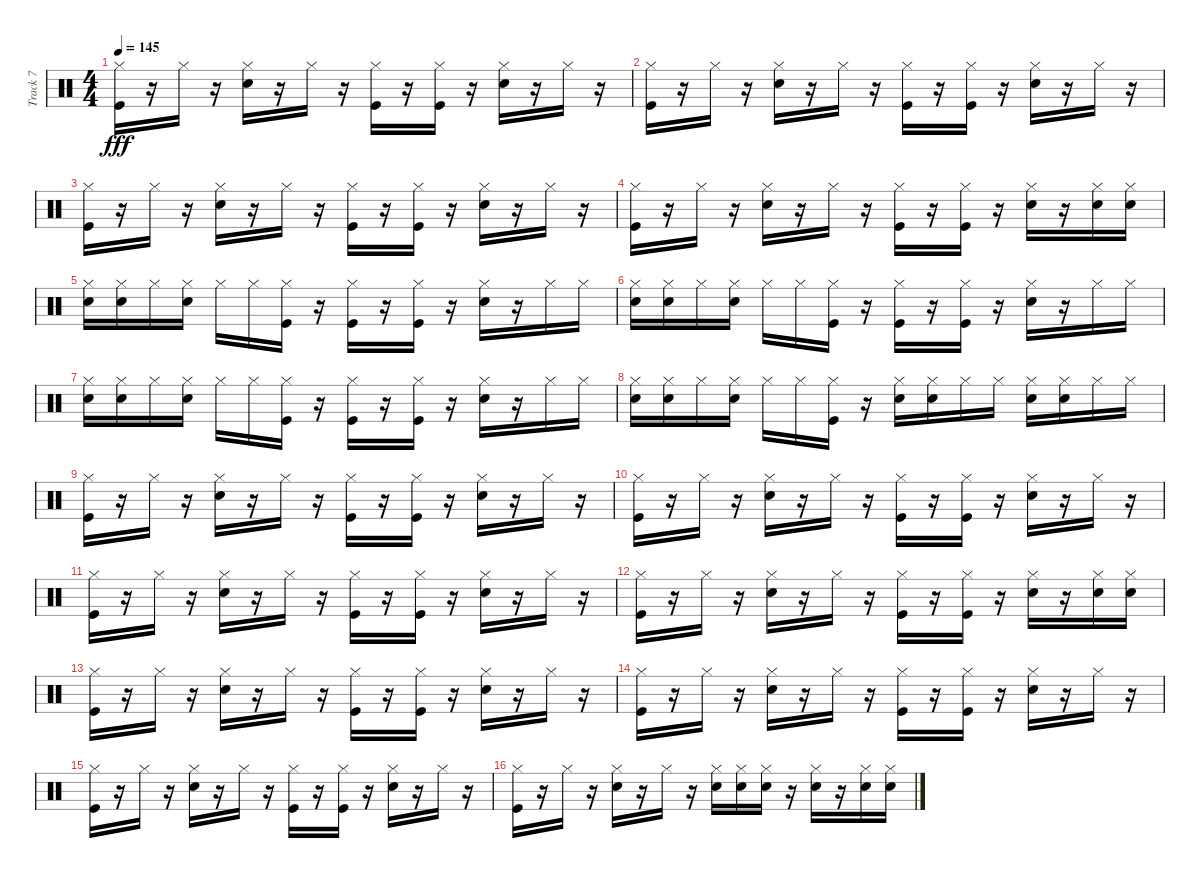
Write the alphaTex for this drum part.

\track ("Track 7" "Track 7") {instrument percussion}
\staff {score}
\articulation defaults
\ts (4 4)
\tempo 145
\clef neutral
\ks c
("Kick (hit)" "Hi-Hat (closed)").16{dy fff} r.16 "Hi-Hat (closed)".16 r.16 ("Snare (hit) 2" "Hi-Hat (closed)").16 r.16 "Hi-Hat (closed)".16 r.16 ("Kick (hit)" "Hi-Hat (closed)").16 r.16 ("Kick (hit)" "Hi-Hat (closed)").16 r.16 ("Snare (hit) 2" "Hi-Hat (closed)").16 r.16 "Hi-Hat (closed)".16 r.16 |
("Kick (hit)" "Hi-Hat (closed)").16 r.16 "Hi-Hat (closed)".16 r.16 ("Snare (hit) 2" "Hi-Hat (closed)").16 r.16 "Hi-Hat (closed)".16 r.16 ("Kick (hit)" "Hi-Hat (closed)").16 r.16 ("Kick (hit)" "Hi-Hat (closed)").16 r.16 ("Snare (hit) 2" "Hi-Hat (closed)").16 r.16 "Hi-Hat (closed)".16 r.16 |
("Kick (hit)" "Hi-Hat (closed)").16 r.16 "Hi-Hat (closed)".16 r.16 ("Snare (hit) 2" "Hi-Hat (closed)").16 r.16 "Hi-Hat (closed)".16 r.16 ("Kick (hit)" "Hi-Hat (closed)").16 r.16 ("Kick (hit)" "Hi-Hat (closed)").16 r.16 ("Snare (hit) 2" "Hi-Hat (closed)").16 r.16 "Hi-Hat (closed)".16 r.16 |
("Kick (hit)" "Hi-Hat (closed)").16 r.16 "Hi-Hat (closed)".16 r.16 ("Snare (hit) 2" "Hi-Hat (closed)").16 r.16 "Hi-Hat (closed)".16 r.16 ("Kick (hit)" "Hi-Hat (closed)").16 r.16 ("Kick (hit)" "Hi-Hat (closed)").16 r.16 ("Snare (hit) 2" "Hi-Hat (closed)").16 r.16 ("Snare (hit) 2" "Hi-Hat (closed)").16 ("Snare (hit) 2" "Hi-Hat (closed)").16 |
("Snare (hit) 2" "Hi-Hat (closed)").16 ("Snare (hit) 2" "Hi-Hat (closed)").16 "Hi-Hat (closed)".16 ("Snare (hit) 2" "Hi-Hat (closed)").16 "Hi-Hat (closed)".16 "Hi-Hat (closed)".16 ("Kick (hit)" "Hi-Hat (closed)").16 r.16 ("Kick (hit)" "Hi-Hat (closed)").16 r.16 ("Kick (hit)" "Hi-Hat (closed)").16 r.16 ("Snare (hit) 2" "Hi-Hat (closed)").16 r.16 "Hi-Hat (closed)".16 "Hi-Hat (closed)".16 |
("Snare (hit) 2" "Hi-Hat (closed)").16 ("Snare (hit) 2" "Hi-Hat (closed)").16 "Hi-Hat (closed)".16 ("Snare (hit) 2" "Hi-Hat (closed)").16 "Hi-Hat (closed)".16 "Hi-Hat (closed)".16 ("Kick (hit)" "Hi-Hat (closed)").16 r.16 ("Kick (hit)" "Hi-Hat (closed)").16 r.16 ("Kick (hit)" "Hi-Hat (closed)").16 r.16 ("Snare (hit) 2" "Hi-Hat (closed)").16 r.16 "Hi-Hat (closed)".16 "Hi-Hat (closed)".16 |
("Snare (hit) 2" "Hi-Hat (closed)").16 ("Snare (hit) 2" "Hi-Hat (closed)").16 "Hi-Hat (closed)".16 ("Snare (hit) 2" "Hi-Hat (closed)").16 "Hi-Hat (closed)".16 "Hi-Hat (closed)".16 ("Kick (hit)" "Hi-Hat (closed)").16 r.16 ("Kick (hit)" "Hi-Hat (closed)").16 r.16 ("Kick (hit)" "Hi-Hat (closed)").16 r.16 ("Snare (hit) 2" "Hi-Hat (closed)").16 r.16 "Hi-Hat (closed)".16 "Hi-Hat (closed)".16 |
("Snare (hit) 2" "Hi-Hat (closed)").16 ("Snare (hit) 2" "Hi-Hat (closed)").16 "Hi-Hat (closed)".16 ("Snare (hit) 2" "Hi-Hat (closed)").16 "Hi-Hat (closed)".16 "Hi-Hat (closed)".16 ("Kick (hit)" "Hi-Hat (closed)").16 r.16 ("Snare (hit) 2" "Hi-Hat (closed)").16 ("Snare (hit) 2" "Hi-Hat (closed)").16 "Hi-Hat (closed)".16 "Hi-Hat (closed)".16 ("Snare (hit) 2" "Hi-Hat (closed)").16 ("Snare (hit) 2" "Hi-Hat (closed)").16 "Hi-Hat (closed)".16 "Hi-Hat (closed)".16 |
("Kick (hit)" "Hi-Hat (closed)").16 r.16 "Hi-Hat (closed)".16 r.16 ("Snare (hit) 2" "Hi-Hat (closed)").16 r.16 "Hi-Hat (closed)".16 r.16 ("Kick (hit)" "Hi-Hat (closed)").16 r.16 ("Kick (hit)" "Hi-Hat (closed)").16 r.16 ("Snare (hit) 2" "Hi-Hat (closed)").16 r.16 "Hi-Hat (closed)".16 r.16 |
("Kick (hit)" "Hi-Hat (closed)").16 r.16 "Hi-Hat (closed)".16 r.16 ("Snare (hit) 2" "Hi-Hat (closed)").16 r.16 "Hi-Hat (closed)".16 r.16 ("Kick (hit)" "Hi-Hat (closed)").16 r.16 ("Kick (hit)" "Hi-Hat (closed)").16 r.16 ("Snare (hit) 2" "Hi-Hat (closed)").16 r.16 "Hi-Hat (closed)".16 r.16 |
("Kick (hit)" "Hi-Hat (closed)").16 r.16 "Hi-Hat (closed)".16 r.16 ("Snare (hit) 2" "Hi-Hat (closed)").16 r.16 "Hi-Hat (closed)".16 r.16 ("Kick (hit)" "Hi-Hat (closed)").16 r.16 ("Kick (hit)" "Hi-Hat (closed)").16 r.16 ("Snare (hit) 2" "Hi-Hat (closed)").16 r.16 "Hi-Hat (closed)".16 r.16 |
("Kick (hit)" "Hi-Hat (closed)").16 r.16 "Hi-Hat (closed)".16 r.16 ("Snare (hit) 2" "Hi-Hat (closed)").16 r.16 "Hi-Hat (closed)".16 r.16 ("Kick (hit)" "Hi-Hat (closed)").16 r.16 ("Kick (hit)" "Hi-Hat (closed)").16 r.16 ("Snare (hit) 2" "Hi-Hat (closed)").16 r.16 ("Snare (hit) 2" "Hi-Hat (closed)").16 ("Snare (hit) 2" "Hi-Hat (closed)").16 |
("Kick (hit)" "Hi-Hat (closed)").16 r.16 "Hi-Hat (closed)".16 r.16 ("Snare (hit) 2" "Hi-Hat (closed)").16 r.16 "Hi-Hat (closed)".16 r.16 ("Kick (hit)" "Hi-Hat (closed)").16 r.16 ("Kick (hit)" "Hi-Hat (closed)").16 r.16 ("Snare (hit) 2" "Hi-Hat (closed)").16 r.16 "Hi-Hat (closed)".16 r.16 |
("Kick (hit)" "Hi-Hat (closed)").16 r.16 "Hi-Hat (closed)".16 r.16 ("Snare (hit) 2" "Hi-Hat (closed)").16 r.16 "Hi-Hat (closed)".16 r.16 ("Kick (hit)" "Hi-Hat (closed)").16 r.16 ("Kick (hit)" "Hi-Hat (closed)").16 r.16 ("Snare (hit) 2" "Hi-Hat (closed)").16 r.16 "Hi-Hat (closed)".16 r.16 |
("Kick (hit)" "Hi-Hat (closed)").16 r.16 "Hi-Hat (closed)".16 r.16 ("Snare (hit) 2" "Hi-Hat (closed)").16 r.16 "Hi-Hat (closed)".16 r.16 ("Kick (hit)" "Hi-Hat (closed)").16 r.16 ("Kick (hit)" "Hi-Hat (closed)").16 r.16 ("Snare (hit) 2" "Hi-Hat (closed)").16 r.16 "Hi-Hat (closed)".16 r.16 |
("Kick (hit)" "Hi-Hat (closed)").16 r.16 "Hi-Hat (closed)".16 r.16 ("Snare (hit) 2" "Hi-Hat (closed)").16 r.16 "Hi-Hat (closed)".16 r.16 ("Snare (hit) 2" "Hi-Hat (closed)").16 ("Snare (hit) 2" "Hi-Hat (closed)").16 ("Snare (hit) 2" "Hi-Hat (closed)").16 r.16 ("Snare (hit) 2" "Hi-Hat (closed)").16 r.16 ("Snare (hit) 2" "Hi-Hat (closed)").16 ("Snare (hit) 2" "Hi-Hat (closed)").16
